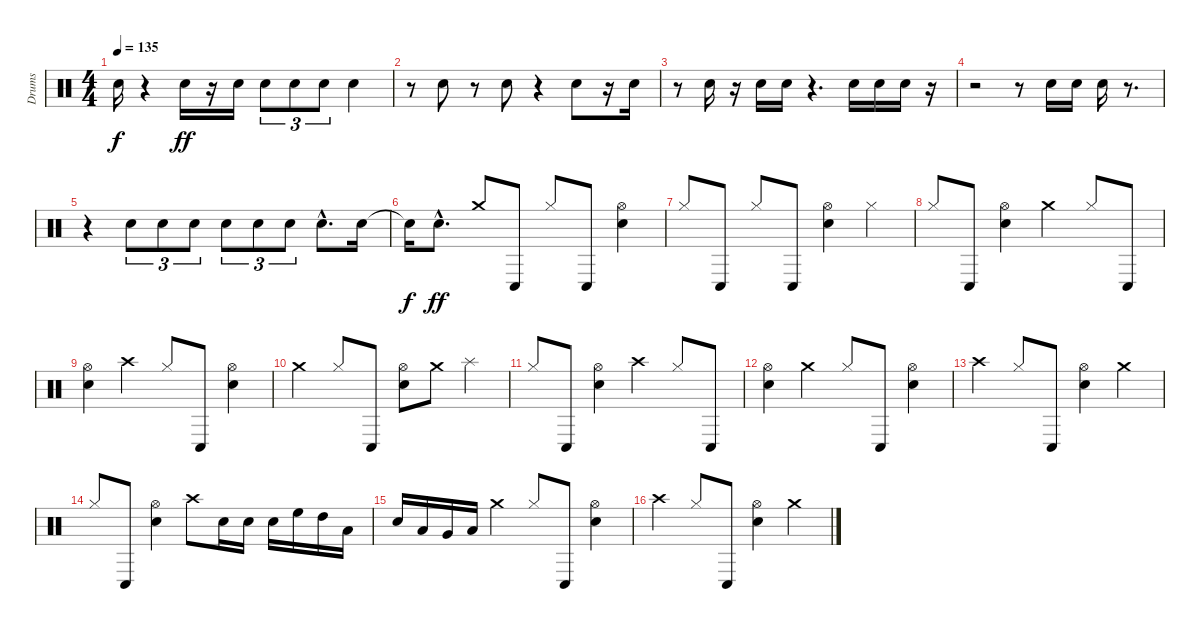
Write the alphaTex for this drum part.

\track ("Drums" "Drums") {instrument percussion}
\staff {score}
\articulation defaults
\ts (4 4)
\tempo 135
\clef neutral
\ks c "Snare (hit)"{t}.16{dy f}
r.4 "Electric Snare (hit)".16{dy ff} r.16 "Electric Snare (hit)".16 "Electric Snare (hit)".8{tu (3 2)} "Electric Snare (hit)".8{tu (3 2)} "Electric Snare (hit)".8{tu (3 2)} "Electric Snare (hit)".4 |
r.8 "Electric Snare (hit)".8 r.8 "Electric Snare (hit)".8 r.4 "Electric Snare (hit)".8 r.16 "Electric Snare (hit)".16 |
r.8 "Electric Snare (hit)".16 r.16 "Electric Snare (hit)".16 "Electric Snare (hit)".16 r.4{d} "Electric Snare (hit)".16 "Electric Snare (hit)".16 "Electric Snare (hit)".16 r.16 |
r.2 r.8 "Electric Snare (hit)".16 "Electric Snare (hit)".16 "Electric Snare (hit)".16 r.8{d} |
r.4 "Electric Snare (hit)".8{tu (3 2)} "Electric Snare (hit)".8{tu (3 2)} "Electric Snare (hit)".8{tu (3 2)} "Electric Snare (hit)".8{tu (3 2)} "Electric Snare (hit)".8{tu (3 2)} "Electric Snare (hit)".8{tu (3 2)} "Electric Snare (hit)"{hac}.8{d} "Electric Snare (hit)".16 |
"Snare (hit)"{t}.16{dy f} "Electric Snare (hit)"{hac}.8{d dy ff} "Crash medium (hit)".8 "Conga low (hit)".8 "Hi-Hat (closed)".8 "Conga low (hit)".8 ("Electric Snare (hit)" "Hi-Hat (open)").4 |
"Hi-Hat (closed)".8 "Conga low (hit)".8 "Hi-Hat (closed)".8 "Conga low (hit)".8 ("Electric Snare (hit)" "Hi-Hat (open)").4 "Hi-Hat (closed)".4 |
"Hi-Hat (closed)".8 "Conga low (hit)".8 ("Electric Snare (hit)" "Hi-Hat (open)").4 "Crash medium (hit)".4 "Hi-Hat (closed)".8 "Conga low (hit)".8 |
("Electric Snare (hit)" "Hi-Hat (open)").4 "Crash high (hit)".4 "Hi-Hat (closed)".8 "Conga low (hit)".8 ("Electric Snare (hit)" "Hi-Hat (open)").4 |
"Crash medium (hit)".4 "Hi-Hat (closed)".8 "Conga low (hit)".8 ("Electric Snare (hit)" "Hi-Hat (open)").8 "Crash medium (hit)".8 "Splash (hit)".4 |
"Hi-Hat (closed)".8 "Conga low (hit)".8 ("Electric Snare (hit)" "Hi-Hat (open)").4 "Crash high (hit)".4 "Hi-Hat (closed)".8 "Conga low (hit)".8 |
("Electric Snare (hit)" "Hi-Hat (open)").4 "Crash medium (hit)".4 "Hi-Hat (closed)".8 "Conga low (hit)".8 ("Electric Snare (hit)" "Hi-Hat (open)").4 |
"Crash high (hit)".4 "Hi-Hat (closed)".8 "Conga low (hit)".8 ("Electric Snare (hit)" "Hi-Hat (open)").4 "Crash medium (hit)".4 |
"Hi-Hat (closed)".8 "Conga low (hit)".8 ("Electric Snare (hit)" "Hi-Hat (open)").4 "Crash high (hit)".8 "Electric Snare (hit)".16 "Electric Snare (hit)".16 "Electric Snare (hit)".16 "High Floor Tom (hit)".16 "High Tom (hit)".16 "Low Tom (hit)".16 |
"Electric Snare (hit)".16 "Low Tom (hit)".16 "Very Low Tom (hit)".16 "Low Floor Tom (hit)".16 "Crash medium (hit)".4 "Hi-Hat (closed)".8 "Conga low (hit)".8 ("Electric Snare (hit)" "Hi-Hat (open)").4 |
"Crash high (hit)".4 "Hi-Hat (closed)".8 "Conga low (hit)".8 ("Electric Snare (hit)" "Hi-Hat (open)").4 "Crash medium (hit)".4
